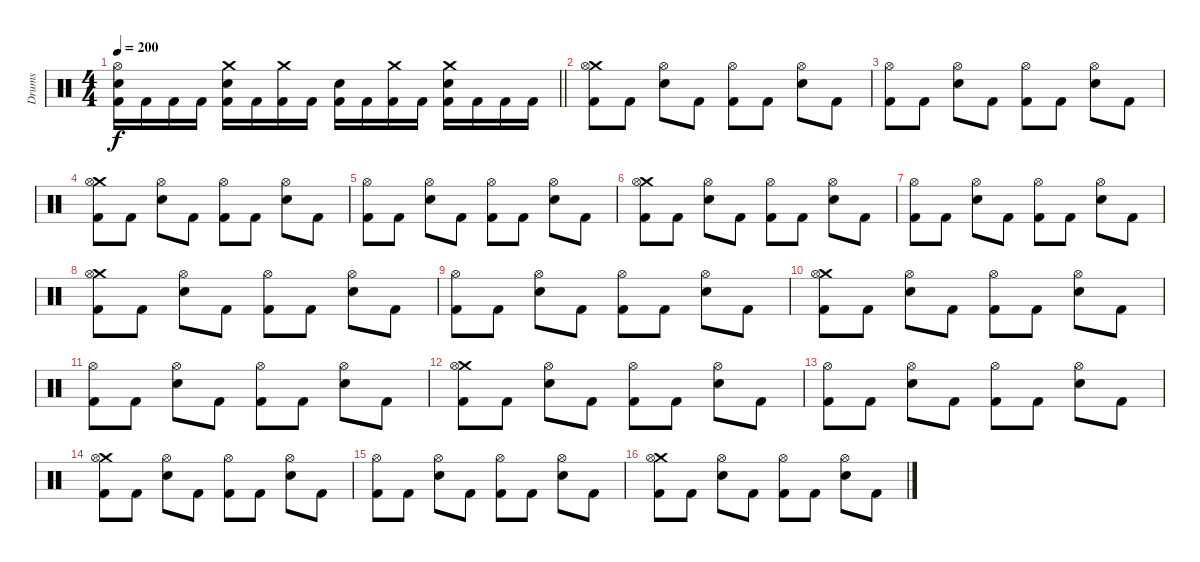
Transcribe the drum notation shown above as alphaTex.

\track ("Drums" "Drums") {instrument percussion}
\staff {score}
\articulation defaults
\ts (4 4)
\tempo 200
\clef neutral
\barLineRight lightlight
\ks c
("Hi-Hat (open)" "Snare (hit) 2" "Kick (hit) 2").16{dy f} "Kick (hit) 2".16 "Kick (hit) 2".16 "Kick (hit) 2".16 ("Crash medium (hit)" "Snare (hit) 2" "Kick (hit) 2").16 "Kick (hit) 2".16 ("Crash medium (hit)" "Kick (hit) 2").16 "Kick (hit) 2".16 ("Snare (hit) 2" "Kick (hit) 2").16 "Kick (hit) 2".16 ("Crash medium (hit)" "Kick (hit) 2").16 "Kick (hit) 2".16 ("Crash medium (hit)" "Snare (hit) 2" "Kick (hit) 2").16 "Kick (hit) 2".16 "Kick (hit) 2".16 "Kick (hit) 2".16 |
("Crash medium (hit)" "Hi-Hat (open)" "Kick (hit) 2").8 "Kick (hit) 2".8 ("Hi-Hat (open)" "Snare (hit) 2").8 "Kick (hit) 2".8 ("Hi-Hat (open)" "Kick (hit) 2").8 "Kick (hit) 2".8 ("Hi-Hat (open)" "Snare (hit) 2").8 "Kick (hit) 2".8 |
("Hi-Hat (open)" "Kick (hit) 2").8 "Kick (hit) 2".8 ("Hi-Hat (open)" "Snare (hit) 2").8 "Kick (hit) 2".8 ("Hi-Hat (open)" "Kick (hit) 2").8 "Kick (hit) 2".8 ("Hi-Hat (open)" "Snare (hit) 2").8 "Kick (hit) 2".8 |
("Crash medium (hit)" "Hi-Hat (open)" "Kick (hit) 2").8 "Kick (hit) 2".8 ("Hi-Hat (open)" "Snare (hit) 2").8 "Kick (hit) 2".8 ("Hi-Hat (open)" "Kick (hit) 2").8 "Kick (hit) 2".8 ("Hi-Hat (open)" "Snare (hit) 2").8 "Kick (hit) 2".8 |
("Hi-Hat (open)" "Kick (hit) 2").8 "Kick (hit) 2".8 ("Hi-Hat (open)" "Snare (hit) 2").8 "Kick (hit) 2".8 ("Hi-Hat (open)" "Kick (hit) 2").8 "Kick (hit) 2".8 ("Hi-Hat (open)" "Snare (hit) 2").8 "Kick (hit) 2".8 |
("Crash medium (hit)" "Hi-Hat (open)" "Kick (hit) 2").8 "Kick (hit) 2".8 ("Hi-Hat (open)" "Snare (hit) 2").8 "Kick (hit) 2".8 ("Hi-Hat (open)" "Kick (hit) 2").8 "Kick (hit) 2".8 ("Hi-Hat (open)" "Snare (hit) 2").8 "Kick (hit) 2".8 |
("Hi-Hat (open)" "Kick (hit) 2").8 "Kick (hit) 2".8 ("Hi-Hat (open)" "Snare (hit) 2").8 "Kick (hit) 2".8 ("Hi-Hat (open)" "Kick (hit) 2").8 "Kick (hit) 2".8 ("Hi-Hat (open)" "Snare (hit) 2").8 "Kick (hit) 2".8 |
("Crash medium (hit)" "Hi-Hat (open)" "Kick (hit) 2").8 "Kick (hit) 2".8 ("Hi-Hat (open)" "Snare (hit) 2").8 "Kick (hit) 2".8 ("Hi-Hat (open)" "Kick (hit) 2").8 "Kick (hit) 2".8 ("Hi-Hat (open)" "Snare (hit) 2").8 "Kick (hit) 2".8 |
("Hi-Hat (open)" "Kick (hit) 2").8 "Kick (hit) 2".8 ("Hi-Hat (open)" "Snare (hit) 2").8 "Kick (hit) 2".8 ("Hi-Hat (open)" "Kick (hit) 2").8 "Kick (hit) 2".8 ("Hi-Hat (open)" "Snare (hit) 2").8 "Kick (hit) 2".8 |
("Crash medium (hit)" "Hi-Hat (open)" "Kick (hit) 2").8 "Kick (hit) 2".8 ("Hi-Hat (open)" "Snare (hit) 2").8 "Kick (hit) 2".8 ("Hi-Hat (open)" "Kick (hit) 2").8 "Kick (hit) 2".8 ("Hi-Hat (open)" "Snare (hit) 2").8 "Kick (hit) 2".8 |
("Hi-Hat (open)" "Kick (hit) 2").8 "Kick (hit) 2".8 ("Hi-Hat (open)" "Snare (hit) 2").8 "Kick (hit) 2".8 ("Hi-Hat (open)" "Kick (hit) 2").8 "Kick (hit) 2".8 ("Hi-Hat (open)" "Snare (hit) 2").8 "Kick (hit) 2".8 |
("Crash medium (hit)" "Hi-Hat (open)" "Kick (hit) 2").8 "Kick (hit) 2".8 ("Hi-Hat (open)" "Snare (hit) 2").8 "Kick (hit) 2".8 ("Hi-Hat (open)" "Kick (hit) 2").8 "Kick (hit) 2".8 ("Hi-Hat (open)" "Snare (hit) 2").8 "Kick (hit) 2".8 |
("Hi-Hat (open)" "Kick (hit) 2").8 "Kick (hit) 2".8 ("Hi-Hat (open)" "Snare (hit) 2").8 "Kick (hit) 2".8 ("Hi-Hat (open)" "Kick (hit) 2").8 "Kick (hit) 2".8 ("Hi-Hat (open)" "Snare (hit) 2").8 "Kick (hit) 2".8 |
("Crash medium (hit)" "Hi-Hat (open)" "Kick (hit) 2").8 "Kick (hit) 2".8 ("Hi-Hat (open)" "Snare (hit) 2").8 "Kick (hit) 2".8 ("Hi-Hat (open)" "Kick (hit) 2").8 "Kick (hit) 2".8 ("Hi-Hat (open)" "Snare (hit) 2").8 "Kick (hit) 2".8 |
("Hi-Hat (open)" "Kick (hit) 2").8 "Kick (hit) 2".8 ("Hi-Hat (open)" "Snare (hit) 2").8 "Kick (hit) 2".8 ("Hi-Hat (open)" "Kick (hit) 2").8 "Kick (hit) 2".8 ("Hi-Hat (open)" "Snare (hit) 2").8 "Kick (hit) 2".8 |
("Crash medium (hit)" "Hi-Hat (open)" "Kick (hit) 2").8 "Kick (hit) 2".8 ("Hi-Hat (open)" "Snare (hit) 2").8 "Kick (hit) 2".8 ("Hi-Hat (open)" "Kick (hit) 2").8 "Kick (hit) 2".8 ("Hi-Hat (open)" "Snare (hit) 2").8 "Kick (hit) 2".8
